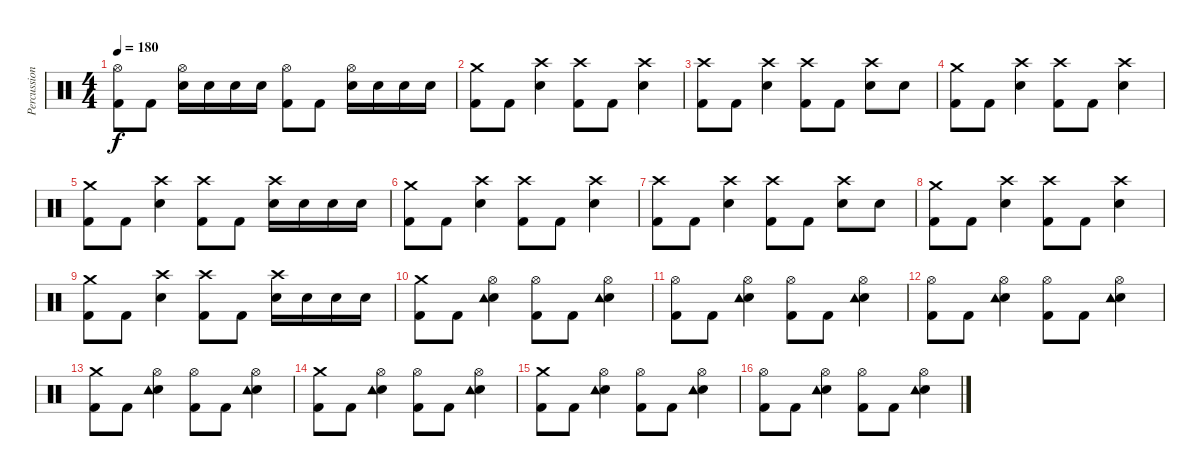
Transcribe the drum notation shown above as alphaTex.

\track ("Percussions" "Percussion") {instrument percussion}
\staff {score}
\articulation defaults
\ts (4 4)
\tempo 180
\clef neutral
\ks c
("Hi-Hat (open)" "Kick (hit) 2").8{dy f} "Kick (hit) 2".8 ("Electric Snare (hit)" "Hi-Hat (open)").16 "Electric Snare (hit)".16 "Electric Snare (hit)".16 "Electric Snare (hit)".16 ("Hi-Hat (open)" "Kick (hit) 2").8 "Kick (hit) 2".8 ("Electric Snare (hit)" "Hi-Hat (open)").16 "Electric Snare (hit)".16 "Electric Snare (hit)".16 "Electric Snare (hit)".16 |
("Crash medium (hit)" "Kick (hit) 2").8 "Kick (hit) 2".8 ("Electric Snare (hit)" "Crash high (hit)").4 ("Crash high (hit)" "Kick (hit) 2").8 "Kick (hit) 2".8 ("Electric Snare (hit)" "Crash high (hit)").4 |
("Crash high (hit)" "Kick (hit) 2").8 "Kick (hit) 2".8 ("Electric Snare (hit)" "Crash high (hit)").4 ("Crash high (hit)" "Kick (hit) 2").8 "Kick (hit) 2".8 ("Electric Snare (hit)" "Crash high (hit)").8 "Electric Snare (hit)".8 |
("Crash medium (hit)" "Kick (hit) 2").8 "Kick (hit) 2".8 ("Electric Snare (hit)" "Crash high (hit)").4 ("Crash high (hit)" "Kick (hit) 2").8 "Kick (hit) 2".8 ("Electric Snare (hit)" "Crash high (hit)").4 |
("Crash medium (hit)" "Kick (hit) 2").8 "Kick (hit) 2".8 ("Electric Snare (hit)" "Crash high (hit)").4 ("Crash high (hit)" "Kick (hit) 2").8 "Kick (hit) 2".8 ("Electric Snare (hit)" "Crash high (hit)").16 "Electric Snare (hit)".16 "Electric Snare (hit)".16 "Electric Snare (hit)".16 |
("Crash medium (hit)" "Kick (hit) 2").8 "Kick (hit) 2".8 ("Electric Snare (hit)" "Crash high (hit)").4 ("Crash high (hit)" "Kick (hit) 2").8 "Kick (hit) 2".8 ("Electric Snare (hit)" "Crash high (hit)").4 |
("Crash high (hit)" "Kick (hit) 2").8 "Kick (hit) 2".8 ("Electric Snare (hit)" "Crash high (hit)").4 ("Crash high (hit)" "Kick (hit) 2").8 "Kick (hit) 2".8 ("Electric Snare (hit)" "Crash high (hit)").8 "Electric Snare (hit)".8 |
("Crash medium (hit)" "Kick (hit) 2").8 "Kick (hit) 2".8 ("Electric Snare (hit)" "Crash high (hit)").4 ("Crash high (hit)" "Kick (hit) 2").8 "Kick (hit) 2".8 ("Electric Snare (hit)" "Crash high (hit)").4 |
("Crash medium (hit)" "Kick (hit) 2").8 "Kick (hit) 2".8 ("Electric Snare (hit)" "Crash high (hit)").4 ("Crash high (hit)" "Kick (hit) 2").8 "Kick (hit) 2".8 ("Electric Snare (hit)" "Crash high (hit)").16 "Electric Snare (hit)".16 "Electric Snare (hit)".16 "Electric Snare (hit)".16 |
("Crash medium (hit)" "Kick (hit) 2").8 "Kick (hit) 2".8 ("Electric Snare (hit)" "Hi-Hat (open)" "Tambourine (hit)").4 ("Hi-Hat (open)" "Kick (hit) 2").8 "Kick (hit) 2".8 ("Electric Snare (hit)" "Hi-Hat (open)" "Tambourine (hit)").4 |
("Hi-Hat (open)" "Kick (hit) 2").8 "Kick (hit) 2".8 ("Electric Snare (hit)" "Hi-Hat (open)" "Tambourine (hit)").4 ("Hi-Hat (open)" "Kick (hit) 2").8 "Kick (hit) 2".8 ("Electric Snare (hit)" "Hi-Hat (open)" "Tambourine (hit)").4 |
("Hi-Hat (open)" "Kick (hit) 2").8 "Kick (hit) 2".8 ("Electric Snare (hit)" "Hi-Hat (open)" "Tambourine (hit)").4 ("Hi-Hat (open)" "Kick (hit) 2").8 "Kick (hit) 2".8 ("Electric Snare (hit)" "Hi-Hat (open)" "Tambourine (hit)").4 |
("Crash medium (hit)" "Kick (hit) 2").8 "Kick (hit) 2".8 ("Electric Snare (hit)" "Hi-Hat (open)" "Tambourine (hit)").4 ("Hi-Hat (open)" "Kick (hit) 2").8 "Kick (hit) 2".8 ("Electric Snare (hit)" "Hi-Hat (open)" "Tambourine (hit)").4 |
("Crash medium (hit)" "Kick (hit) 2").8 "Kick (hit) 2".8 ("Electric Snare (hit)" "Hi-Hat (open)" "Tambourine (hit)").4 ("Hi-Hat (open)" "Kick (hit) 2").8 "Kick (hit) 2".8 ("Electric Snare (hit)" "Hi-Hat (open)" "Tambourine (hit)").4 |
("Crash medium (hit)" "Kick (hit) 2").8 "Kick (hit) 2".8 ("Electric Snare (hit)" "Hi-Hat (open)" "Tambourine (hit)").4 ("Hi-Hat (open)" "Kick (hit) 2").8 "Kick (hit) 2".8 ("Electric Snare (hit)" "Hi-Hat (open)" "Tambourine (hit)").4 |
("Hi-Hat (open)" "Kick (hit) 2").8 "Kick (hit) 2".8 ("Electric Snare (hit)" "Hi-Hat (open)" "Tambourine (hit)").4 ("Hi-Hat (open)" "Kick (hit) 2").8 "Kick (hit) 2".8 ("Electric Snare (hit)" "Hi-Hat (open)" "Tambourine (hit)").4
